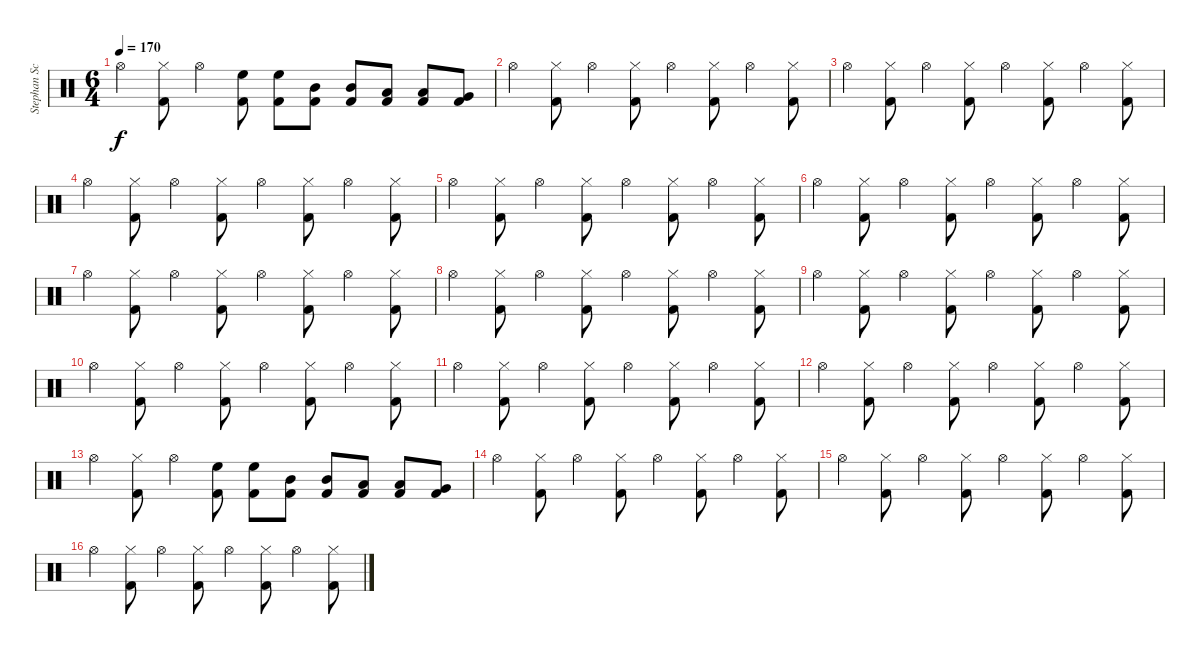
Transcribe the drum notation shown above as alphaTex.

\track ("Stephan Schwartzmann" "Stephan Sc") {instrument percussion}
\staff {score}
\articulation defaults
\ts (6 4)
\tempo 170
\clef neutral
\ks c "Hi-Hat (open)".4{dy f}
("Hi-Hat (closed)" "Kick (hit) 2").8 "Hi-Hat (open)".4 ("High Floor Tom (hit)" "Kick (hit) 2").8 ("High Floor Tom (hit)" "Kick (hit) 2").8 ("Mid Tom (hit)" "Kick (hit) 2").8 ("Mid Tom (hit)" "Kick (hit) 2").8 ("Low Tom (hit)" "Kick (hit) 2").8 ("Low Tom (hit)" "Kick (hit) 2").8 ("Very Low Tom (hit)" "Kick (hit) 2").8 |
"Hi-Hat (open)".4 ("Hi-Hat (closed)" "Kick (hit) 2").8 "Hi-Hat (open)".4 ("Hi-Hat (closed)" "Kick (hit) 2").8 "Hi-Hat (open)".4 ("Hi-Hat (closed)" "Kick (hit) 2").8 "Hi-Hat (open)".4 ("Hi-Hat (closed)" "Kick (hit) 2").8 |
"Hi-Hat (open)".4 ("Hi-Hat (closed)" "Kick (hit) 2").8 "Hi-Hat (open)".4 ("Hi-Hat (closed)" "Kick (hit) 2").8 "Hi-Hat (open)".4 ("Hi-Hat (closed)" "Kick (hit) 2").8 "Hi-Hat (open)".4 ("Hi-Hat (closed)" "Kick (hit) 2").8 |
"Hi-Hat (open)".4 ("Hi-Hat (closed)" "Kick (hit) 2").8 "Hi-Hat (open)".4 ("Hi-Hat (closed)" "Kick (hit) 2").8 "Hi-Hat (open)".4 ("Hi-Hat (closed)" "Kick (hit) 2").8 "Hi-Hat (open)".4 ("Hi-Hat (closed)" "Kick (hit) 2").8 |
"Hi-Hat (open)".4 ("Hi-Hat (closed)" "Kick (hit) 2").8 "Hi-Hat (open)".4 ("Hi-Hat (closed)" "Kick (hit) 2").8 "Hi-Hat (open)".4 ("Hi-Hat (closed)" "Kick (hit) 2").8 "Hi-Hat (open)".4 ("Hi-Hat (closed)" "Kick (hit) 2").8 |
"Hi-Hat (open)".4 ("Hi-Hat (closed)" "Kick (hit) 2").8 "Hi-Hat (open)".4 ("Hi-Hat (closed)" "Kick (hit) 2").8 "Hi-Hat (open)".4 ("Hi-Hat (closed)" "Kick (hit) 2").8 "Hi-Hat (open)".4 ("Hi-Hat (closed)" "Kick (hit) 2").8 |
"Hi-Hat (open)".4 ("Hi-Hat (closed)" "Kick (hit) 2").8 "Hi-Hat (open)".4 ("Hi-Hat (closed)" "Kick (hit) 2").8 "Hi-Hat (open)".4 ("Hi-Hat (closed)" "Kick (hit) 2").8 "Hi-Hat (open)".4 ("Hi-Hat (closed)" "Kick (hit) 2").8 |
"Hi-Hat (open)".4 ("Hi-Hat (closed)" "Kick (hit) 2").8 "Hi-Hat (open)".4 ("Hi-Hat (closed)" "Kick (hit) 2").8 "Hi-Hat (open)".4 ("Hi-Hat (closed)" "Kick (hit) 2").8 "Hi-Hat (open)".4 ("Hi-Hat (closed)" "Kick (hit) 2").8 |
"Hi-Hat (open)".4 ("Hi-Hat (closed)" "Kick (hit) 2").8 "Hi-Hat (open)".4 ("Hi-Hat (closed)" "Kick (hit) 2").8 "Hi-Hat (open)".4 ("Hi-Hat (closed)" "Kick (hit) 2").8 "Hi-Hat (open)".4 ("Hi-Hat (closed)" "Kick (hit) 2").8 |
"Hi-Hat (open)".4 ("Hi-Hat (closed)" "Kick (hit) 2").8 "Hi-Hat (open)".4 ("Hi-Hat (closed)" "Kick (hit) 2").8 "Hi-Hat (open)".4 ("Hi-Hat (closed)" "Kick (hit) 2").8 "Hi-Hat (open)".4 ("Hi-Hat (closed)" "Kick (hit) 2").8 |
"Hi-Hat (open)".4 ("Hi-Hat (closed)" "Kick (hit) 2").8 "Hi-Hat (open)".4 ("Hi-Hat (closed)" "Kick (hit) 2").8 "Hi-Hat (open)".4 ("Hi-Hat (closed)" "Kick (hit) 2").8 "Hi-Hat (open)".4 ("Hi-Hat (closed)" "Kick (hit) 2").8 |
"Hi-Hat (open)".4 ("Hi-Hat (closed)" "Kick (hit) 2").8 "Hi-Hat (open)".4 ("Hi-Hat (closed)" "Kick (hit) 2").8 "Hi-Hat (open)".4 ("Hi-Hat (closed)" "Kick (hit) 2").8 "Hi-Hat (open)".4 ("Hi-Hat (closed)" "Kick (hit) 2").8 |
"Hi-Hat (open)".4 ("Hi-Hat (closed)" "Kick (hit) 2").8 "Hi-Hat (open)".4 ("High Floor Tom (hit)" "Kick (hit) 2").8 ("High Floor Tom (hit)" "Kick (hit) 2").8 ("Mid Tom (hit)" "Kick (hit) 2").8 ("Mid Tom (hit)" "Kick (hit) 2").8 ("Low Tom (hit)" "Kick (hit) 2").8 ("Low Tom (hit)" "Kick (hit) 2").8 ("Very Low Tom (hit)" "Kick (hit) 2").8 |
"Hi-Hat (open)".4 ("Hi-Hat (closed)" "Kick (hit) 2").8 "Hi-Hat (open)".4 ("Hi-Hat (closed)" "Kick (hit) 2").8 "Hi-Hat (open)".4 ("Hi-Hat (closed)" "Kick (hit) 2").8 "Hi-Hat (open)".4 ("Hi-Hat (closed)" "Kick (hit) 2").8 |
"Hi-Hat (open)".4 ("Hi-Hat (closed)" "Kick (hit) 2").8 "Hi-Hat (open)".4 ("Hi-Hat (closed)" "Kick (hit) 2").8 "Hi-Hat (open)".4 ("Hi-Hat (closed)" "Kick (hit) 2").8 "Hi-Hat (open)".4 ("Hi-Hat (closed)" "Kick (hit) 2").8 |
"Hi-Hat (open)".4 ("Hi-Hat (closed)" "Kick (hit) 2").8 "Hi-Hat (open)".4 ("Hi-Hat (closed)" "Kick (hit) 2").8 "Hi-Hat (open)".4 ("Hi-Hat (closed)" "Kick (hit) 2").8 "Hi-Hat (open)".4 ("Hi-Hat (closed)" "Kick (hit) 2").8
